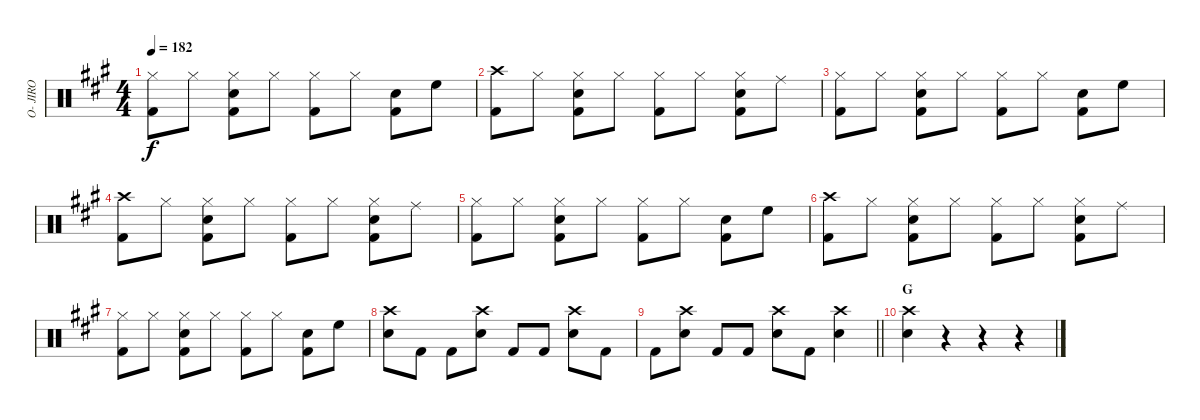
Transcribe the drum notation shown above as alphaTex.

\track ("O- JIRO" "O- JIRO") {instrument percussion}
\staff {score}
\articulation defaults
\ts (4 4)
\tempo 182
\clef neutral
\ks a
("Hi-Hat (closed)" "Kick (hit) 2").8{dy f} "Hi-Hat (closed)".8 ("Hi-Hat (closed)" "Snare (hit) 2" "Kick (hit) 2").8 "Hi-Hat (closed)".8 ("Hi-Hat (closed)" "Kick (hit) 2").8 "Hi-Hat (closed)".8 ("Snare (hit) 2" "Kick (hit) 2").8 "High Floor Tom (hit)".8 |
("Crash high (hit)" "Kick (hit) 2").8 "Hi-Hat (closed)".8 ("Hi-Hat (closed)" "Snare (hit) 2" "Kick (hit) 2").8 "Hi-Hat (closed)".8 ("Hi-Hat (closed)" "Kick (hit) 2").8 "Hi-Hat (closed)".8 ("Hi-Hat (closed)" "Snare (hit) 2" "Kick (hit) 2").8 "Ride (middle)".8 |
("Hi-Hat (closed)" "Kick (hit) 2").8 "Hi-Hat (closed)".8 ("Hi-Hat (closed)" "Snare (hit) 2" "Kick (hit) 2").8 "Hi-Hat (closed)".8 ("Hi-Hat (closed)" "Kick (hit) 2").8 "Hi-Hat (closed)".8 ("Snare (hit) 2" "Kick (hit) 2").8 "High Floor Tom (hit)".8 |
("Crash high (hit)" "Kick (hit) 2").8 "Hi-Hat (closed)".8 ("Hi-Hat (closed)" "Snare (hit) 2" "Kick (hit) 2").8 "Hi-Hat (closed)".8 ("Hi-Hat (closed)" "Kick (hit) 2").8 "Hi-Hat (closed)".8 ("Hi-Hat (closed)" "Snare (hit) 2" "Kick (hit) 2").8 "Ride (middle)".8 |
("Hi-Hat (closed)" "Kick (hit) 2").8 "Hi-Hat (closed)".8 ("Hi-Hat (closed)" "Snare (hit) 2" "Kick (hit) 2").8 "Hi-Hat (closed)".8 ("Hi-Hat (closed)" "Kick (hit) 2").8 "Hi-Hat (closed)".8 ("Snare (hit) 2" "Kick (hit) 2").8 "High Floor Tom (hit)".8 |
("Crash high (hit)" "Kick (hit) 2").8 "Hi-Hat (closed)".8 ("Hi-Hat (closed)" "Snare (hit) 2" "Kick (hit) 2").8 "Hi-Hat (closed)".8 ("Hi-Hat (closed)" "Kick (hit) 2").8 "Hi-Hat (closed)".8 ("Hi-Hat (closed)" "Snare (hit) 2" "Kick (hit) 2").8 "Ride (middle)".8 |
("Hi-Hat (closed)" "Kick (hit) 2").8 "Hi-Hat (closed)".8 ("Hi-Hat (closed)" "Snare (hit) 2" "Kick (hit) 2").8 "Hi-Hat (closed)".8 ("Hi-Hat (closed)" "Kick (hit) 2").8 "Hi-Hat (closed)".8 ("Snare (hit) 2" "Kick (hit) 2").8 "High Floor Tom (hit)".8 |
("Crash high (hit)" "Snare (hit) 2").8 "Kick (hit) 2".8 "Kick (hit) 2".8 ("Crash high (hit)" "Snare (hit) 2").8 "Kick (hit) 2".8 "Kick (hit) 2".8 ("Crash high (hit)" "Snare (hit) 2").8 "Kick (hit) 2".8 |
\barLineRight lightlight "Kick (hit) 2".8
("Crash high (hit)" "Snare (hit) 2").8 "Kick (hit) 2".8 "Kick (hit) 2".8 ("Crash high (hit)" "Snare (hit) 2").8 "Kick (hit) 2".8 ("Crash high (hit)" "Snare (hit) 2").4 |
\section ("" "G")
("Crash high (hit)" "Snare (hit) 2").4 r.4 r.4 r.4
